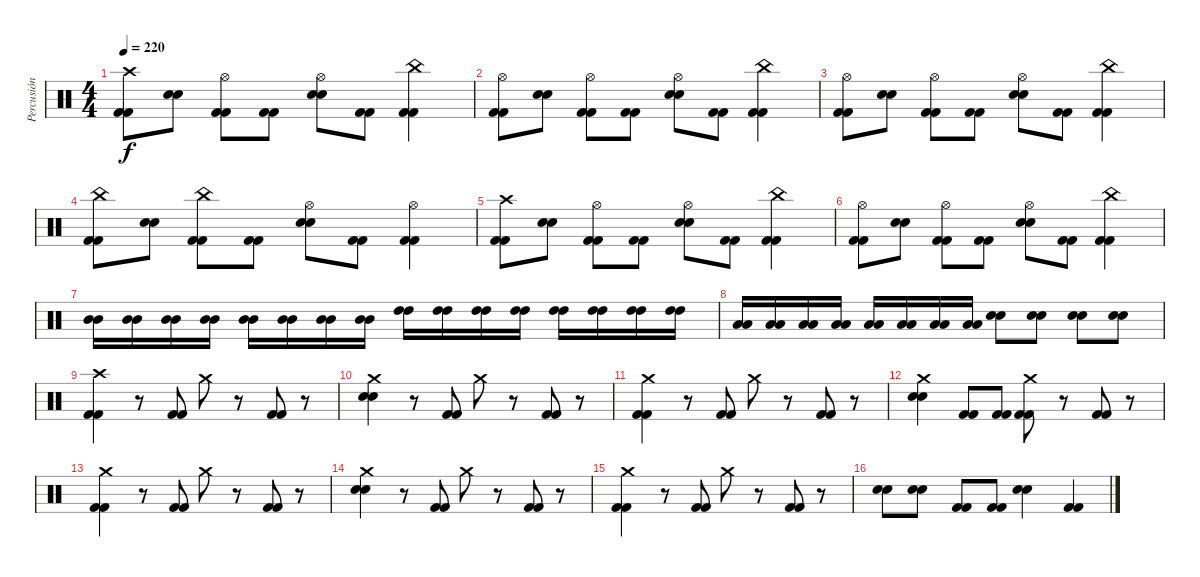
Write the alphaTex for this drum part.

\track ("Percusión" "Percusión") {instrument percussion}
\staff {score}
\articulation defaults
\ts (4 4)
\tempo 220
\clef neutral
\ks c
("Kick (hit) 2" "Kick (hit) 2" "Crash high (hit)").8{dy f} ("Electric Snare (hit)" "Electric Snare (hit)").8 ("Kick (hit) 2" "Kick (hit) 2" "Hi-Hat (open)").8 ("Kick (hit) 2" "Kick (hit) 2").8 ("Electric Snare (hit)" "Electric Snare (hit)" "Hi-Hat (open)").8 ("Kick (hit) 2" "Kick (hit) 2").8 ("Kick (hit) 2" "Kick (hit) 2" "China (hit)").4 |
("Kick (hit) 2" "Kick (hit) 2" "Hi-Hat (open)").8 ("Electric Snare (hit)" "Electric Snare (hit)").8 ("Kick (hit) 2" "Kick (hit) 2" "Hi-Hat (open)").8 ("Kick (hit) 2" "Kick (hit) 2").8 ("Electric Snare (hit)" "Electric Snare (hit)" "Hi-Hat (open)").8 ("Kick (hit) 2" "Kick (hit) 2").8 ("Kick (hit) 2" "Kick (hit) 2" "China (hit)").4 |
("Kick (hit) 2" "Kick (hit) 2" "Hi-Hat (open)").8 ("Electric Snare (hit)" "Electric Snare (hit)").8 ("Kick (hit) 2" "Kick (hit) 2" "Hi-Hat (open)").8 ("Kick (hit) 2" "Kick (hit) 2").8 ("Electric Snare (hit)" "Electric Snare (hit)" "Hi-Hat (open)").8 ("Kick (hit) 2" "Kick (hit) 2").8 ("Kick (hit) 2" "Kick (hit) 2" "China (hit)").4 |
("Kick (hit) 2" "Kick (hit) 2" "China (hit)").8 ("Electric Snare (hit)" "Electric Snare (hit)").8 ("Kick (hit) 2" "Kick (hit) 2" "China (hit)").8 ("Kick (hit) 2" "Kick (hit) 2").8 ("Electric Snare (hit)" "Electric Snare (hit)" "Hi-Hat (open)").8 ("Kick (hit) 2" "Kick (hit) 2").8 ("Kick (hit) 2" "Kick (hit) 2" "Hi-Hat (open)").4 |
("Kick (hit) 2" "Kick (hit) 2" "Crash high (hit)").8 ("Electric Snare (hit)" "Electric Snare (hit)").8 ("Kick (hit) 2" "Kick (hit) 2" "Hi-Hat (open)").8 ("Kick (hit) 2" "Kick (hit) 2").8 ("Electric Snare (hit)" "Electric Snare (hit)" "Hi-Hat (open)").8 ("Kick (hit) 2" "Kick (hit) 2").8 ("Kick (hit) 2" "Kick (hit) 2" "China (hit)").4 |
("Kick (hit) 2" "Kick (hit) 2" "Hi-Hat (open)").8 ("Electric Snare (hit)" "Electric Snare (hit)").8 ("Kick (hit) 2" "Kick (hit) 2" "Hi-Hat (open)").8 ("Kick (hit) 2" "Kick (hit) 2").8 ("Electric Snare (hit)" "Electric Snare (hit)" "Hi-Hat (open)").8 ("Kick (hit) 2" "Kick (hit) 2").8 ("Kick (hit) 2" "Kick (hit) 2" "China (hit)").4 |
("Mid Tom (hit)" "Mid Tom (hit)").16 ("Mid Tom (hit)" "Mid Tom (hit)").16 ("Mid Tom (hit)" "Mid Tom (hit)").16 ("Mid Tom (hit)" "Mid Tom (hit)").16 ("Mid Tom (hit)" "Mid Tom (hit)").16 ("Mid Tom (hit)" "Mid Tom (hit)").16 ("Mid Tom (hit)" "Mid Tom (hit)").16 ("Mid Tom (hit)" "Mid Tom (hit)").16 ("High Tom (hit)" "High Tom (hit)").16 ("High Tom (hit)" "High Tom (hit)").16 ("High Tom (hit)" "High Tom (hit)").16 ("High Tom (hit)" "High Tom (hit)").16 ("High Tom (hit)" "High Tom (hit)").16 ("High Tom (hit)" "High Tom (hit)").16 ("High Tom (hit)" "High Tom (hit)").16 ("High Tom (hit)" "High Tom (hit)").16 |
("Low Floor Tom (hit)" "Low Floor Tom (hit)").16 ("Low Floor Tom (hit)" "Low Floor Tom (hit)").16 ("Low Floor Tom (hit)" "Low Floor Tom (hit)").16 ("Low Floor Tom (hit)" "Low Floor Tom (hit)").16 ("Low Floor Tom (hit)" "Low Floor Tom (hit)").16 ("Low Floor Tom (hit)" "Low Floor Tom (hit)").16 ("Low Floor Tom (hit)" "Low Floor Tom (hit)").16 ("Low Floor Tom (hit)" "Low Floor Tom (hit)").16 ("Electric Snare (hit)" "Electric Snare (hit)").8 ("Electric Snare (hit)" "Electric Snare (hit)").8 ("Electric Snare (hit)" "Electric Snare (hit)").8 ("Electric Snare (hit)" "Electric Snare (hit)").8 |
("Kick (hit) 2" "Kick (hit) 2" "Crash high (hit)").4 r.8 ("Kick (hit) 2" "Kick (hit) 2").8 "Crash medium (hit)".8 r.8 ("Kick (hit) 2" "Kick (hit) 2").8 r.8 |
("Electric Snare (hit)" "Electric Snare (hit)" "Crash medium (hit)").4 r.8 ("Kick (hit) 2" "Kick (hit) 2").8 "Crash medium (hit)".8 r.8 ("Kick (hit) 2" "Kick (hit) 2").8 r.8 |
("Kick (hit) 2" "Kick (hit) 2" "Crash medium (hit)").4 r.8 ("Kick (hit) 2" "Kick (hit) 2").8 "Crash medium (hit)".8 r.8 ("Kick (hit) 2" "Kick (hit) 2").8 r.8 |
("Electric Snare (hit)" "Electric Snare (hit)" "Crash medium (hit)").4 ("Kick (hit) 2" "Kick (hit) 2").8 ("Kick (hit) 2" "Kick (hit) 2").8 ("Kick (hit) 2" "Kick (hit) 2" "Crash medium (hit)").8 r.8 ("Kick (hit) 2" "Kick (hit) 2").8 r.8 |
("Kick (hit) 2" "Kick (hit) 2" "Crash medium (hit)").4 r.8 ("Kick (hit) 2" "Kick (hit) 2").8 "Crash medium (hit)".8 r.8 ("Kick (hit) 2" "Kick (hit) 2").8 r.8 |
("Electric Snare (hit)" "Electric Snare (hit)" "Crash medium (hit)").4 r.8 ("Kick (hit) 2" "Kick (hit) 2").8 "Crash medium (hit)".8 r.8 ("Kick (hit) 2" "Kick (hit) 2").8 r.8 |
("Kick (hit) 2" "Kick (hit) 2" "Crash medium (hit)").4 r.8 ("Kick (hit) 2" "Kick (hit) 2").8 "Crash medium (hit)".8 r.8 ("Kick (hit) 2" "Kick (hit) 2").8 r.8 |
("Electric Snare (hit)" "Electric Snare (hit)").8 ("Electric Snare (hit)" "Electric Snare (hit)").8 ("Kick (hit) 2" "Kick (hit) 2").8 ("Kick (hit) 2" "Kick (hit) 2").8 ("Electric Snare (hit)" "Electric Snare (hit)").4 ("Kick (hit) 2" "Kick (hit) 2").4
